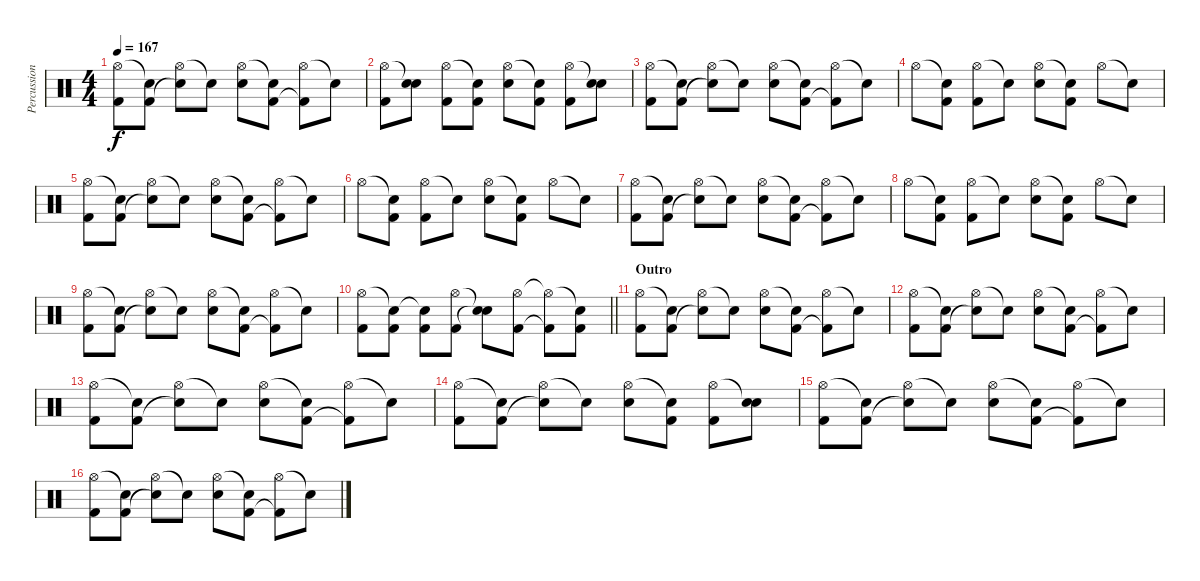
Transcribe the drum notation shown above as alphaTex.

\track ("Percussion" "Percussion") {instrument percussion}
\staff {score}
\articulation defaults
\ts (4 4)
\tempo 167
\clef neutral
\ks c
("Hi-Hat (open)" "Kick (hit) 2").8{dy f} ("Snare (hit)"{t} "Kick (hit) 2").8 ("Hi-Hat (open)" "Snare (hit)"{t}).8 "Snare (hit)"{t}.8 ("Hi-Hat (open)" "Electric Snare (hit)").8 ("Snare (hit)"{t} "Kick (hit) 2").8 ("Hi-Hat (open)" "Kick (hit) 2"{t}).8 "Snare (hit)"{t}.8 |
("Hi-Hat (open)" "Kick (hit) 2").8 ("Snare (hit)"{t} "Electric Snare (hit)").8 ("Hi-Hat (open)" "Kick (hit) 2").8 ("Snare (hit)"{t} "Kick (hit) 2").8 ("Hi-Hat (open)" "Electric Snare (hit)").8 ("Snare (hit)"{t} "Kick (hit) 2").8 ("Hi-Hat (open)" "Kick (hit) 2").8 ("Snare (hit)"{t} "Electric Snare (hit)").8 |
("Hi-Hat (open)" "Kick (hit) 2").8 ("Snare (hit)"{t} "Kick (hit) 2").8 ("Hi-Hat (open)" "Snare (hit)"{t}).8 "Snare (hit)"{t}.8 ("Hi-Hat (open)" "Electric Snare (hit)").8 ("Snare (hit)"{t} "Kick (hit) 2").8 ("Hi-Hat (open)" "Kick (hit) 2"{t}).8 "Snare (hit)"{t}.8 |
"Hi-Hat (open)".8 ("Snare (hit)"{t} "Kick (hit) 2").8 ("Hi-Hat (open)" "Kick (hit) 2").8 "Snare (hit)"{t}.8 ("Hi-Hat (open)" "Electric Snare (hit)").8 ("Snare (hit)"{t} "Kick (hit) 2").8 "Hi-Hat (open)".8 "Snare (hit)"{t}.8 |
("Hi-Hat (open)" "Kick (hit) 2").8 ("Snare (hit)"{t} "Kick (hit) 2").8 ("Hi-Hat (open)" "Snare (hit)"{t}).8 "Snare (hit)"{t}.8 ("Hi-Hat (open)" "Electric Snare (hit)").8 ("Snare (hit)"{t} "Kick (hit) 2").8 ("Hi-Hat (open)" "Kick (hit) 2"{t}).8 "Snare (hit)"{t}.8 |
"Hi-Hat (open)".8 ("Snare (hit)"{t} "Kick (hit) 2").8 ("Hi-Hat (open)" "Kick (hit) 2").8 "Snare (hit)"{t}.8 ("Hi-Hat (open)" "Electric Snare (hit)").8 ("Snare (hit)"{t} "Kick (hit) 2").8 "Hi-Hat (open)".8 "Snare (hit)"{t}.8 |
("Hi-Hat (open)" "Kick (hit) 2").8 ("Snare (hit)"{t} "Kick (hit) 2").8 ("Hi-Hat (open)" "Snare (hit)"{t}).8 "Snare (hit)"{t}.8 ("Hi-Hat (open)" "Electric Snare (hit)").8 ("Snare (hit)"{t} "Kick (hit) 2").8 ("Hi-Hat (open)" "Kick (hit) 2"{t}).8 "Snare (hit)"{t}.8 |
"Hi-Hat (open)".8 ("Snare (hit)"{t} "Kick (hit) 2").8 ("Hi-Hat (open)" "Kick (hit) 2").8 "Snare (hit)"{t}.8 ("Hi-Hat (open)" "Electric Snare (hit)").8 ("Snare (hit)"{t} "Kick (hit) 2").8 "Hi-Hat (open)".8 "Snare (hit)"{t}.8 |
("Hi-Hat (open)" "Kick (hit) 2").8 ("Snare (hit)"{t} "Kick (hit) 2").8 ("Hi-Hat (open)" "Snare (hit)"{t}).8 "Snare (hit)"{t}.8 ("Hi-Hat (open)" "Electric Snare (hit)").8 ("Snare (hit)"{t} "Kick (hit) 2").8 ("Hi-Hat (open)" "Kick (hit) 2"{t}).8 "Snare (hit)"{t}.8 |
\barLineRight lightlight
("Hi-Hat (open)" "Kick (hit) 2").8 ("Snare (hit)"{t} "Kick (hit) 2").8 ("Snare (hit)"{t} "Kick (hit) 2").8 ("Hi-Hat (open)" "Kick (hit) 2").8 ("Snare (hit)"{t} "Snare (hit)"{t}).8 ("Hi-Hat (open)" "Kick (hit) 2").8 ("Hi-Hat (open)"{t} "Kick (hit) 2"{t}).8 ("Snare (hit)"{t} "Kick (hit) 2").8 |
\section ("" "Outro")
("Hi-Hat (open)" "Kick (hit) 2").8 ("Snare (hit)"{t} "Kick (hit) 2").8 ("Hi-Hat (open)" "Snare (hit)"{t}).8 "Snare (hit)"{t}.8 ("Hi-Hat (open)" "Electric Snare (hit)").8 ("Snare (hit)"{t} "Kick (hit) 2").8 ("Hi-Hat (open)" "Kick (hit) 2"{t}).8 "Snare (hit)"{t}.8 |
("Hi-Hat (open)" "Kick (hit) 2").8 ("Snare (hit)"{t} "Kick (hit) 2").8 ("Hi-Hat (open)" "Snare (hit)"{t}).8 "Snare (hit)"{t}.8 ("Hi-Hat (open)" "Electric Snare (hit)").8 ("Snare (hit)"{t} "Kick (hit) 2").8 ("Hi-Hat (open)" "Kick (hit) 2"{t}).8 "Snare (hit)"{t}.8 |
("Hi-Hat (open)" "Kick (hit) 2").8 ("Snare (hit)"{t} "Kick (hit) 2").8 ("Hi-Hat (open)" "Snare (hit)"{t}).8 "Snare (hit)"{t}.8 ("Hi-Hat (open)" "Electric Snare (hit)").8 ("Snare (hit)"{t} "Kick (hit) 2").8 ("Hi-Hat (open)" "Kick (hit) 2"{t}).8 "Snare (hit)"{t}.8 |
("Hi-Hat (open)" "Kick (hit) 2").8 ("Snare (hit)"{t} "Kick (hit) 2").8 ("Hi-Hat (open)" "Snare (hit)"{t}).8 "Snare (hit)"{t}.8 ("Hi-Hat (open)" "Electric Snare (hit)").8 ("Snare (hit)"{t} "Kick (hit) 2").8 ("Hi-Hat (open)" "Kick (hit) 2").8 ("Snare (hit)"{t} "Electric Snare (hit)").8 |
("Hi-Hat (open)" "Kick (hit) 2").8 ("Snare (hit)"{t} "Kick (hit) 2").8 ("Hi-Hat (open)" "Snare (hit)"{t}).8 "Snare (hit)"{t}.8 ("Hi-Hat (open)" "Electric Snare (hit)").8 ("Snare (hit)"{t} "Kick (hit) 2").8 ("Hi-Hat (open)" "Kick (hit) 2"{t}).8 "Snare (hit)"{t}.8 |
("Hi-Hat (open)" "Kick (hit) 2").8 ("Snare (hit)"{t} "Kick (hit) 2").8 ("Hi-Hat (open)" "Snare (hit)"{t}).8 "Snare (hit)"{t}.8 ("Hi-Hat (open)" "Electric Snare (hit)").8 ("Snare (hit)"{t} "Kick (hit) 2").8 ("Hi-Hat (open)" "Kick (hit) 2"{t}).8 "Snare (hit)"{t}.8
